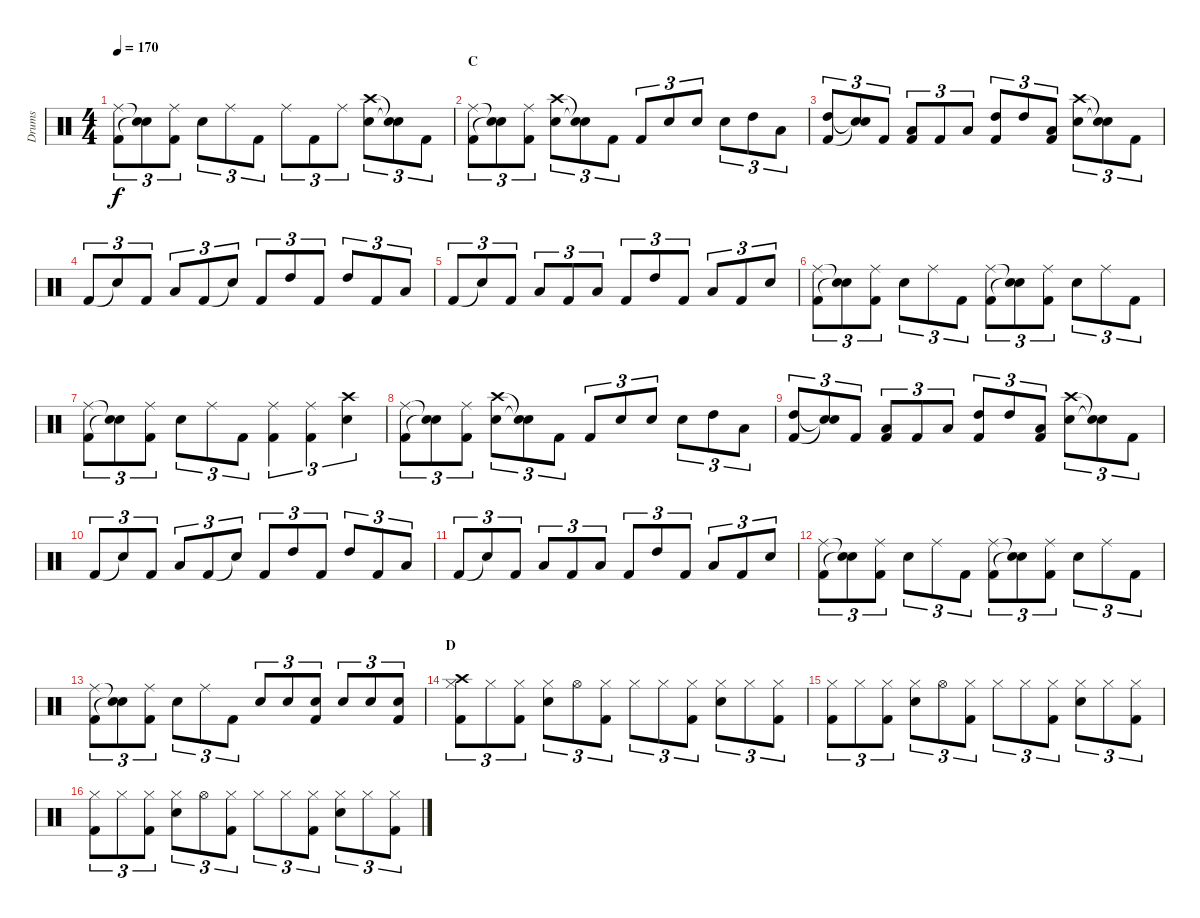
\track ("Drums" "Drums") {instrument percussion}
\staff {score}
\articulation defaults
\ts (4 4)
\tempo 170
\clef neutral
\ks c
("Ride (middle)" "Kick (hit) 2").8{tu (3 2) dy f} ("Snare (hit)"{t} "Snare (hit)"{t}).8{tu (3 2)} ("Ride (middle)" "Kick (hit) 2").8{tu (3 2)} "Snare (hit) 2".8{tu (3 2)} "Ride (middle)".8{tu (3 2)} "Kick (hit) 2".8{tu (3 2)} "Ride (middle)".8{tu (3 2)} "Kick (hit) 2".8{tu (3 2)} "Ride (middle)".8{tu (3 2)} ("Crash high (hit)" "Snare (hit) 2").8{tu (3 2)} ("Snare (hit)"{t} "Snare (hit)"{t}).8{tu (3 2)} "Kick (hit) 2".8{tu (3 2)} |
\section ("" "C")
("Ride (middle)" "Kick (hit) 2").8{tu (3 2)} ("Snare (hit)"{t} "Snare (hit)"{t}).8{tu (3 2)} ("Ride (middle)" "Kick (hit) 2").8{tu (3 2)} ("Crash high (hit)" "Snare (hit) 2").8{tu (3 2)} ("Snare (hit)"{t} "Snare (hit)"{t}).8{tu (3 2)} "Kick (hit) 2".8{tu (3 2)} "Kick (hit) 2".8{tu (3 2)} "Snare (hit) 2".8{tu (3 2)} "Snare (hit) 2".8{tu (3 2)} "Snare (hit) 2".8{tu (3 2)} "High Tom (hit)".8{tu (3 2)} "Low Tom (hit)".8{tu (3 2)} |
("High Tom (hit)" "Kick (hit) 2").8{tu (3 2)} ("Snare (hit)"{t} "Snare (hit)"{t}).8{tu (3 2)} "Kick (hit) 2".8{tu (3 2)} ("Low Tom (hit)" "Kick (hit) 2").8{tu (3 2)} "Kick (hit) 2".8{tu (3 2)} "Low Tom (hit)".8{tu (3 2)} ("High Tom (hit)" "Kick (hit) 2").8{tu (3 2)} "High Tom (hit)".8{tu (3 2)} ("Low Tom (hit)" "Kick (hit) 2").8{tu (3 2)} ("Crash high (hit)" "Snare (hit) 2").8{tu (3 2)} ("Snare (hit)"{t} "Snare (hit)"{t}).8{tu (3 2)} "Kick (hit) 2".8{tu (3 2)} |
"Kick (hit) 2".8{tu (3 2)} "Snare (hit)"{t}.8{tu (3 2)} "Kick (hit) 2".8{tu (3 2)} "Low Tom (hit)".8{tu (3 2)} "Kick (hit) 2".8{tu (3 2)} "Snare (hit)"{t}.8{tu (3 2)} "Kick (hit) 2".8{tu (3 2)} "High Tom (hit)".8{tu (3 2)} "Kick (hit) 2".8{tu (3 2)} "High Tom (hit)".8{tu (3 2)} "Kick (hit) 2".8{tu (3 2)} "Low Tom (hit)".8{tu (3 2)} |
"Kick (hit) 2".8{tu (3 2)} "Snare (hit)"{t}.8{tu (3 2)} "Kick (hit) 2".8{tu (3 2)} "Low Tom (hit)".8{tu (3 2)} "Kick (hit) 2".8{tu (3 2)} "Low Tom (hit)".8{tu (3 2)} "Kick (hit) 2".8{tu (3 2)} "High Tom (hit)".8{tu (3 2)} "Kick (hit) 2".8{tu (3 2)} "Low Tom (hit)".8{tu (3 2)} "Kick (hit) 2".8{tu (3 2)} "Snare (hit) 2".8{tu (3 2)} |
("Ride (middle)" "Kick (hit) 2").8{tu (3 2)} ("Snare (hit)"{t} "Snare (hit)"{t}).8{tu (3 2)} ("Ride (middle)" "Kick (hit) 2").8{tu (3 2)} "Snare (hit) 2".8{tu (3 2)} "Ride (middle)".8{tu (3 2)} "Kick (hit) 2".8{tu (3 2)} ("Ride (middle)" "Kick (hit) 2").8{tu (3 2)} ("Snare (hit)"{t} "Snare (hit)"{t}).8{tu (3 2)} ("Ride (middle)" "Kick (hit) 2").8{tu (3 2)} "Snare (hit) 2".8{tu (3 2)} "Ride (middle)".8{tu (3 2)} "Kick (hit) 2".8{tu (3 2)} |
("Ride (middle)" "Kick (hit) 2").8{tu (3 2)} ("Snare (hit)"{t} "Snare (hit)"{t}).8{tu (3 2)} ("Ride (middle)" "Kick (hit) 2").8{tu (3 2)} "Snare (hit) 2".8{tu (3 2)} "Ride (middle)".8{tu (3 2)} "Kick (hit) 2".8{tu (3 2)} ("Ride (middle)" "Kick (hit) 2").4{tu (3 2)} ("Ride (middle)" "Kick (hit) 2").4{tu (3 2)} ("Crash high (hit)" "Snare (hit) 2").4{tu (3 2)} |
("Ride (middle)" "Kick (hit) 2").8{tu (3 2)} ("Snare (hit)"{t} "Snare (hit)"{t}).8{tu (3 2)} ("Ride (middle)" "Kick (hit) 2").8{tu (3 2)} ("Crash high (hit)" "Snare (hit) 2").8{tu (3 2)} ("Snare (hit)"{t} "Snare (hit)"{t}).8{tu (3 2)} "Kick (hit) 2".8{tu (3 2)} "Kick (hit) 2".8{tu (3 2)} "Snare (hit) 2".8{tu (3 2)} "Snare (hit) 2".8{tu (3 2)} "Snare (hit) 2".8{tu (3 2)} "High Tom (hit)".8{tu (3 2)} "Low Tom (hit)".8{tu (3 2)} |
("High Tom (hit)" "Kick (hit) 2").8{tu (3 2)} ("Snare (hit)"{t} "Snare (hit)"{t}).8{tu (3 2)} "Kick (hit) 2".8{tu (3 2)} ("Low Tom (hit)" "Kick (hit) 2").8{tu (3 2)} "Kick (hit) 2".8{tu (3 2)} "Low Tom (hit)".8{tu (3 2)} ("High Tom (hit)" "Kick (hit) 2").8{tu (3 2)} "High Tom (hit)".8{tu (3 2)} ("Low Tom (hit)" "Kick (hit) 2").8{tu (3 2)} ("Crash high (hit)" "Snare (hit) 2").8{tu (3 2)} ("Snare (hit)"{t} "Snare (hit)"{t}).8{tu (3 2)} "Kick (hit) 2".8{tu (3 2)} |
"Kick (hit) 2".8{tu (3 2)} "Snare (hit)"{t}.8{tu (3 2)} "Kick (hit) 2".8{tu (3 2)} "Low Tom (hit)".8{tu (3 2)} "Kick (hit) 2".8{tu (3 2)} "Snare (hit)"{t}.8{tu (3 2)} "Kick (hit) 2".8{tu (3 2)} "High Tom (hit)".8{tu (3 2)} "Kick (hit) 2".8{tu (3 2)} "High Tom (hit)".8{tu (3 2)} "Kick (hit) 2".8{tu (3 2)} "Low Tom (hit)".8{tu (3 2)} |
"Kick (hit) 2".8{tu (3 2)} "Snare (hit)"{t}.8{tu (3 2)} "Kick (hit) 2".8{tu (3 2)} "Low Tom (hit)".8{tu (3 2)} "Kick (hit) 2".8{tu (3 2)} "Low Tom (hit)".8{tu (3 2)} "Kick (hit) 2".8{tu (3 2)} "High Tom (hit)".8{tu (3 2)} "Kick (hit) 2".8{tu (3 2)} "Low Tom (hit)".8{tu (3 2)} "Kick (hit) 2".8{tu (3 2)} "Snare (hit) 2".8{tu (3 2)} |
("Ride (middle)" "Kick (hit) 2").8{tu (3 2)} ("Snare (hit)"{t} "Snare (hit)"{t}).8{tu (3 2)} ("Ride (middle)" "Kick (hit) 2").8{tu (3 2)} "Snare (hit) 2".8{tu (3 2)} "Ride (middle)".8{tu (3 2)} "Kick (hit) 2".8{tu (3 2)} ("Ride (middle)" "Kick (hit) 2").8{tu (3 2)} ("Snare (hit)"{t} "Snare (hit)"{t}).8{tu (3 2)} ("Ride (middle)" "Kick (hit) 2").8{tu (3 2)} "Snare (hit) 2".8{tu (3 2)} "Ride (middle)".8{tu (3 2)} "Kick (hit) 2".8{tu (3 2)} |
("Ride (middle)" "Kick (hit) 2").8{tu (3 2)} ("Snare (hit)"{t} "Snare (hit)"{t}).8{tu (3 2)} ("Ride (middle)" "Kick (hit) 2").8{tu (3 2)} "Snare (hit) 2".8{tu (3 2)} "Ride (middle)".8{tu (3 2)} "Kick (hit) 2".8{tu (3 2)} "Snare (hit) 2".8{tu (3 2)} "Snare (hit) 2".8{tu (3 2)} ("Snare (hit) 2" "Kick (hit) 2").8{tu (3 2)} "Snare (hit) 2".8{tu (3 2)} "Snare (hit) 2".8{tu (3 2)} ("Snare (hit) 2" "Kick (hit) 2").8{tu (3 2)} |
\section ("" "D")
("Crash high (hit)" "Hi-Hat (closed)" "Kick (hit) 2").8{tu (3 2)} "Hi-Hat (closed)".8{tu (3 2)} ("Hi-Hat (closed)" "Kick (hit) 2").8{tu (3 2)} ("Hi-Hat (closed)" "Snare (hit) 2").8{tu (3 2)} "Hi-Hat (open)".8{tu (3 2)} ("Hi-Hat (closed)" "Kick (hit) 2").8{tu (3 2)} "Hi-Hat (closed)".8{tu (3 2)} "Hi-Hat (closed)".8{tu (3 2)} ("Hi-Hat (closed)" "Kick (hit) 2").8{tu (3 2)} ("Hi-Hat (closed)" "Snare (hit) 2").8{tu (3 2)} "Hi-Hat (closed)".8{tu (3 2)} ("Hi-Hat (closed)" "Kick (hit) 2").8{tu (3 2)} |
("Hi-Hat (closed)" "Kick (hit) 2").8{tu (3 2)} "Hi-Hat (closed)".8{tu (3 2)} ("Hi-Hat (closed)" "Kick (hit) 2").8{tu (3 2)} ("Hi-Hat (closed)" "Snare (hit) 2").8{tu (3 2)} "Hi-Hat (open)".8{tu (3 2)} ("Hi-Hat (closed)" "Kick (hit) 2").8{tu (3 2)} "Hi-Hat (closed)".8{tu (3 2)} "Hi-Hat (closed)".8{tu (3 2)} ("Hi-Hat (closed)" "Kick (hit) 2").8{tu (3 2)} ("Hi-Hat (closed)" "Snare (hit) 2").8{tu (3 2)} "Hi-Hat (closed)".8{tu (3 2)} ("Hi-Hat (closed)" "Kick (hit) 2").8{tu (3 2)} |
("Hi-Hat (closed)" "Kick (hit) 2").8{tu (3 2)} "Hi-Hat (closed)".8{tu (3 2)} ("Hi-Hat (closed)" "Kick (hit) 2").8{tu (3 2)} ("Hi-Hat (closed)" "Snare (hit) 2").8{tu (3 2)} "Hi-Hat (open)".8{tu (3 2)} ("Hi-Hat (closed)" "Kick (hit) 2").8{tu (3 2)} "Hi-Hat (closed)".8{tu (3 2)} "Hi-Hat (closed)".8{tu (3 2)} ("Hi-Hat (closed)" "Kick (hit) 2").8{tu (3 2)} ("Hi-Hat (closed)" "Snare (hit) 2").8{tu (3 2)} "Hi-Hat (closed)".8{tu (3 2)} ("Hi-Hat (closed)" "Kick (hit) 2").8{tu (3 2)}
